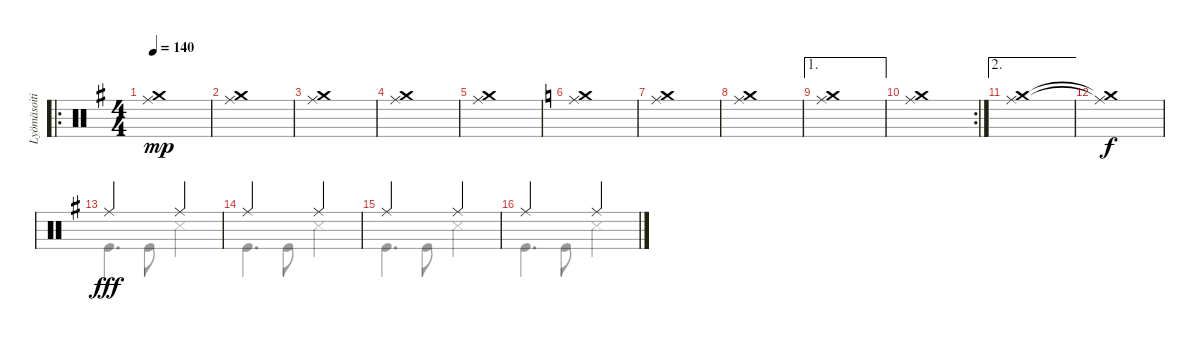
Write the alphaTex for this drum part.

\track ("Lyömäsoitin" "Lyömäsoiti") {instrument percussion}
\staff {score}
\articulation defaults
\voice
\ro
\ts (4 4)
\tempo 140
\clef neutral
\ks eminor
("Ride (middle)" "Crash medium (hit)").1{dy mp volume 5} |
("Ride (middle)" "Crash medium (hit)").1 |
("Ride (middle)" "Crash medium (hit)").1 |
("Ride (middle)" "Crash medium (hit)").1 |
("Ride (middle)" "Crash medium (hit)").1 |
\ks aminor
("Ride (middle)" "Crash medium (hit)").1 |
("Ride (middle)" "Crash medium (hit)").1 |
("Ride (middle)" "Crash medium (hit)").1 |
\ae 1
("Ride (middle)" "Crash medium (hit)").1 |
\rc 2
("Ride (middle)" "Crash medium (hit)").1 |
\ae 2
("Ride (middle)" "Crash medium (hit)").1 |
("Ride (middle)"{t} "Crash medium (hit)"{t}).1{dy f} |
\ks eminor "Ride (middle)".2{dy fff} "Ride (middle)".2
|
"Ride (middle)".2 "Ride (middle)".2 |
"Ride (middle)".2 "Ride (middle)".2 |
"Ride (middle)".2 "Ride (middle)".2
\voice
\clef neutral
\ottava regular
\simile none
\ks eminor
|
|
|
|
|
\ks aminor
|
|
|
|
|
|
|
\ks eminor "Kick (hit)".4{d dy fff} "Kick (hit)".8 "Snare (side stick) 3".2
|
"Kick (hit)".4{d} "Kick (hit)".8 "Snare (side stick) 3".2 |
"Kick (hit)".4{d} "Kick (hit)".8 "Snare (side stick) 3".2 |
"Kick (hit)".4{d} "Kick (hit)".8 "Snare (side stick) 3".2
